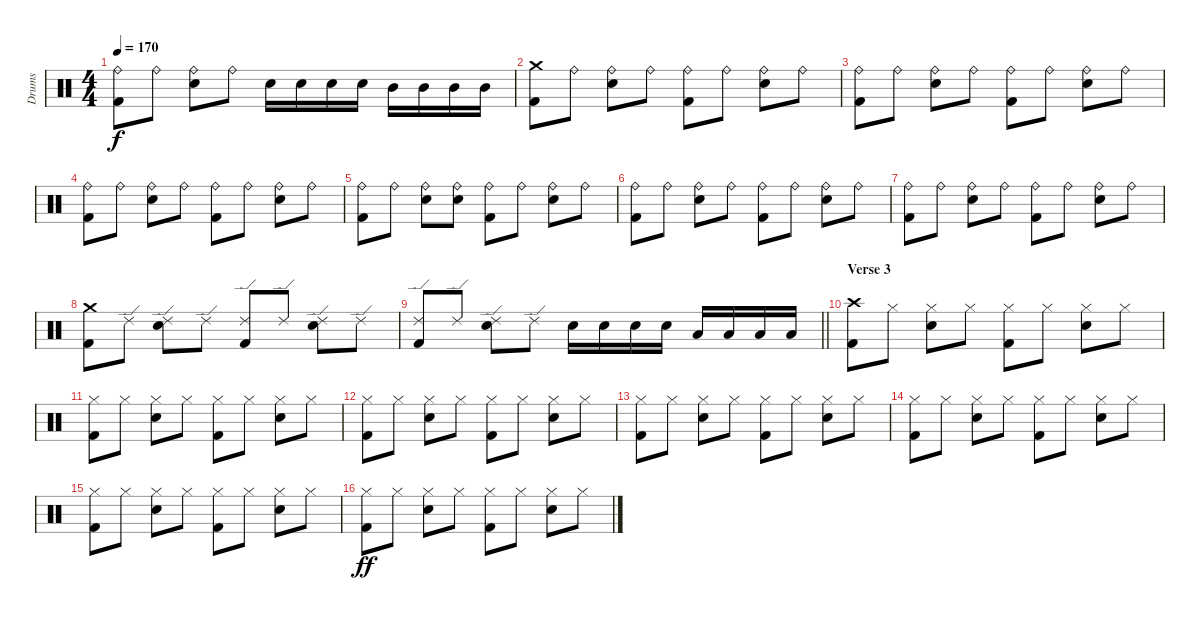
\track ("Drums" "Drums") {instrument percussion}
\staff {score}
\articulation defaults
\ts (4 4)
\tempo 170
\clef neutral
\ks c
("Ride (bell)" "Kick (hit) 2").8{dy f} "Ride (bell)".8 ("Ride (bell)" "Electric Snare (hit)").8 "Ride (bell)".8 "Electric Snare (hit)".16 "Electric Snare (hit)".16 "Electric Snare (hit)".16 "Electric Snare (hit)".16 "Mid Tom (hit)".16 "Mid Tom (hit)".16 "Mid Tom (hit)".16 "Mid Tom (hit)".16 |
("Crash medium (hit)" "Kick (hit) 2").8 "Ride (bell)".8 ("Ride (bell)" "Electric Snare (hit)").8 "Ride (bell)".8 ("Ride (bell)" "Kick (hit) 2").8 "Ride (bell)".8 ("Ride (bell)" "Electric Snare (hit)").8 "Ride (bell)".8 |
("Ride (bell)" "Kick (hit) 2").8 "Ride (bell)".8 ("Ride (bell)" "Electric Snare (hit)").8 "Ride (bell)".8 ("Ride (bell)" "Kick (hit) 2").8 "Ride (bell)".8 ("Ride (bell)" "Electric Snare (hit)").8 "Ride (bell)".8 |
("Ride (bell)" "Kick (hit) 2").8 "Ride (bell)".8 ("Ride (bell)" "Electric Snare (hit)").8 "Ride (bell)".8 ("Ride (bell)" "Kick (hit) 2").8 "Ride (bell)".8 ("Ride (bell)" "Electric Snare (hit)").8 "Ride (bell)".8 |
("Ride (bell)" "Kick (hit) 2").8 "Ride (bell)".8 ("Ride (bell)" "Electric Snare (hit)").8 ("Ride (bell)" "Electric Snare (hit)").8 ("Ride (bell)" "Kick (hit) 2").8 "Ride (bell)".8 ("Ride (bell)" "Electric Snare (hit)").8 "Ride (bell)".8 |
("Ride (bell)" "Kick (hit) 2").8 "Ride (bell)".8 ("Ride (bell)" "Electric Snare (hit)").8 "Ride (bell)".8 ("Ride (bell)" "Kick (hit) 2").8 "Ride (bell)".8 ("Ride (bell)" "Electric Snare (hit)").8 "Ride (bell)".8 |
("Ride (bell)" "Kick (hit) 2").8 "Ride (bell)".8 ("Ride (bell)" "Electric Snare (hit)").8 "Ride (bell)".8 ("Ride (bell)" "Kick (hit) 2").8 "Ride (bell)".8 ("Ride (bell)" "Electric Snare (hit)").8 "Ride (bell)".8 |
("Crash medium (hit)" "Kick (hit) 2").8 "Ride (edge) 2".8 ("Ride (edge) 2" "Electric Snare (hit)").8 "Ride (edge) 2".8 ("Ride (edge) 2" "Kick (hit) 2").8 "Ride (edge) 2".8 ("Ride (edge) 2" "Electric Snare (hit)").8 "Ride (edge) 2".8 |
\barLineRight lightlight
("Ride (edge) 2" "Kick (hit) 2").8 "Ride (edge) 2".8 ("Ride (edge) 2" "Electric Snare (hit)").8 "Ride (edge) 2".8 "Electric Snare (hit)".16 "Electric Snare (hit)".16 "Electric Snare (hit)".16 "Electric Snare (hit)".16 "Low Tom (hit)".16 "Low Tom (hit)".16 "Low Tom (hit)".16 "Low Tom (hit)".16 |
\section ("" "Verse 3")
("Crash high (hit)" "Kick (hit) 2").8 "Hi-Hat (closed)".8 ("Hi-Hat (closed)" "Electric Snare (hit)").8 "Hi-Hat (closed)".8 ("Hi-Hat (closed)" "Kick (hit) 2").8 "Hi-Hat (closed)".8 ("Hi-Hat (closed)" "Electric Snare (hit)").8 "Hi-Hat (closed)".8 |
("Hi-Hat (closed)" "Kick (hit) 2").8 "Hi-Hat (closed)".8 ("Hi-Hat (closed)" "Electric Snare (hit)").8 "Hi-Hat (closed)".8 ("Hi-Hat (closed)" "Kick (hit) 2").8 "Hi-Hat (closed)".8 ("Hi-Hat (closed)" "Electric Snare (hit)").8 "Hi-Hat (closed)".8 |
("Hi-Hat (closed)" "Kick (hit) 2").8 "Hi-Hat (closed)".8 ("Hi-Hat (closed)" "Electric Snare (hit)").8 "Hi-Hat (closed)".8 ("Hi-Hat (closed)" "Kick (hit) 2").8 "Hi-Hat (closed)".8 ("Hi-Hat (closed)" "Electric Snare (hit)").8 "Hi-Hat (closed)".8 |
("Hi-Hat (closed)" "Kick (hit) 2").8 "Hi-Hat (closed)".8 ("Hi-Hat (closed)" "Electric Snare (hit)").8 "Hi-Hat (closed)".8 ("Hi-Hat (closed)" "Kick (hit) 2").8 "Hi-Hat (closed)".8 ("Hi-Hat (closed)" "Electric Snare (hit)").8 "Hi-Hat (closed)".8 |
("Hi-Hat (closed)" "Kick (hit) 2").8 "Hi-Hat (closed)".8 ("Hi-Hat (closed)" "Electric Snare (hit)").8 "Hi-Hat (closed)".8 ("Hi-Hat (closed)" "Kick (hit) 2").8 "Hi-Hat (closed)".8 ("Hi-Hat (closed)" "Electric Snare (hit)").8 "Hi-Hat (closed)".8 |
("Hi-Hat (closed)" "Kick (hit) 2").8 "Hi-Hat (closed)".8 ("Hi-Hat (closed)" "Electric Snare (hit)").8 "Hi-Hat (closed)".8 ("Hi-Hat (closed)" "Kick (hit) 2").8 "Hi-Hat (closed)".8 ("Hi-Hat (closed)" "Electric Snare (hit)").8 "Hi-Hat (closed)".8 |
("Hi-Hat (closed)" "Kick (hit) 2").8{dy ff} "Hi-Hat (closed)".8 ("Hi-Hat (closed)" "Electric Snare (hit)").8 "Hi-Hat (closed)".8 ("Hi-Hat (closed)" "Kick (hit) 2").8 "Hi-Hat (closed)".8 ("Hi-Hat (closed)" "Electric Snare (hit)").8 "Hi-Hat (closed)".8
